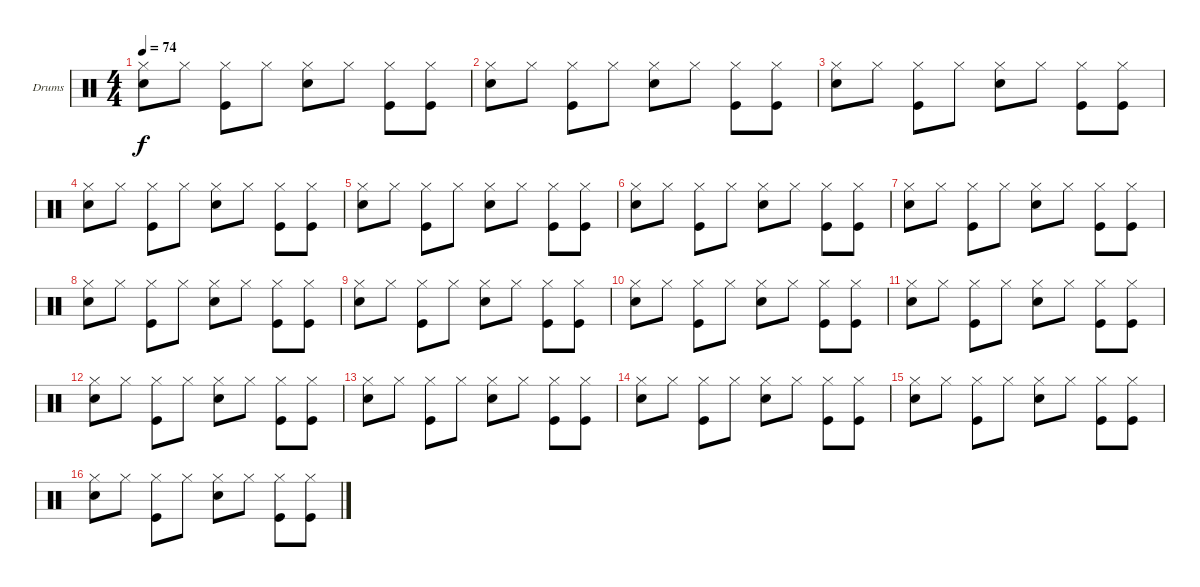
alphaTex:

\bracketExtendMode groupsimilarinstruments
\firstSystemTrackNameOrientation horizontal
\otherSystemsTrackNameOrientation horizontal
\track ("Drumkit" "Drums") {instrument percussion}
\staff {score}
\articulation defaults
\ts (4 4)
\tempo 74
\clef neutral
\ks c
("Hi-Hat (closed)" "Snare (hit) 2").8{dy f} "Hi-Hat (closed)".8 ("Hi-Hat (closed)" "Kick (hit)").8 "Hi-Hat (closed)".8 ("Hi-Hat (closed)" "Snare (hit) 2").8 "Hi-Hat (closed)".8 ("Hi-Hat (closed)" "Kick (hit)").8 ("Hi-Hat (closed)" "Kick (hit)").8 |
("Hi-Hat (closed)" "Snare (hit) 2").8 "Hi-Hat (closed)".8 ("Hi-Hat (closed)" "Kick (hit)").8 "Hi-Hat (closed)".8 ("Hi-Hat (closed)" "Snare (hit) 2").8 "Hi-Hat (closed)".8 ("Hi-Hat (closed)" "Kick (hit)").8 ("Hi-Hat (closed)" "Kick (hit)").8 |
("Hi-Hat (closed)" "Snare (hit) 2").8 "Hi-Hat (closed)".8 ("Hi-Hat (closed)" "Kick (hit)").8 "Hi-Hat (closed)".8 ("Hi-Hat (closed)" "Snare (hit) 2").8 "Hi-Hat (closed)".8 ("Hi-Hat (closed)" "Kick (hit)").8 ("Hi-Hat (closed)" "Kick (hit)").8 |
("Hi-Hat (closed)" "Snare (hit) 2").8 "Hi-Hat (closed)".8 ("Hi-Hat (closed)" "Kick (hit)").8 "Hi-Hat (closed)".8 ("Hi-Hat (closed)" "Snare (hit) 2").8 "Hi-Hat (closed)".8 ("Hi-Hat (closed)" "Kick (hit)").8 ("Hi-Hat (closed)" "Kick (hit)").8 |
("Hi-Hat (closed)" "Snare (hit) 2").8 "Hi-Hat (closed)".8 ("Hi-Hat (closed)" "Kick (hit)").8 "Hi-Hat (closed)".8 ("Hi-Hat (closed)" "Snare (hit) 2").8 "Hi-Hat (closed)".8 ("Hi-Hat (closed)" "Kick (hit)").8 ("Hi-Hat (closed)" "Kick (hit)").8 |
("Hi-Hat (closed)" "Snare (hit) 2").8 "Hi-Hat (closed)".8 ("Hi-Hat (closed)" "Kick (hit)").8 "Hi-Hat (closed)".8 ("Hi-Hat (closed)" "Snare (hit) 2").8 "Hi-Hat (closed)".8 ("Hi-Hat (closed)" "Kick (hit)").8 ("Hi-Hat (closed)" "Kick (hit)").8 |
("Hi-Hat (closed)" "Snare (hit) 2").8 "Hi-Hat (closed)".8 ("Hi-Hat (closed)" "Kick (hit)").8 "Hi-Hat (closed)".8 ("Hi-Hat (closed)" "Snare (hit) 2").8 "Hi-Hat (closed)".8 ("Hi-Hat (closed)" "Kick (hit)").8 ("Hi-Hat (closed)" "Kick (hit)").8 |
("Hi-Hat (closed)" "Snare (hit) 2").8 "Hi-Hat (closed)".8 ("Hi-Hat (closed)" "Kick (hit)").8 "Hi-Hat (closed)".8 ("Hi-Hat (closed)" "Snare (hit) 2").8 "Hi-Hat (closed)".8 ("Hi-Hat (closed)" "Kick (hit)").8 ("Hi-Hat (closed)" "Kick (hit)").8 |
("Hi-Hat (closed)" "Snare (hit) 2").8 "Hi-Hat (closed)".8 ("Hi-Hat (closed)" "Kick (hit)").8 "Hi-Hat (closed)".8 ("Hi-Hat (closed)" "Snare (hit) 2").8 "Hi-Hat (closed)".8 ("Hi-Hat (closed)" "Kick (hit)").8 ("Hi-Hat (closed)" "Kick (hit)").8 |
("Hi-Hat (closed)" "Snare (hit) 2").8 "Hi-Hat (closed)".8 ("Hi-Hat (closed)" "Kick (hit)").8 "Hi-Hat (closed)".8 ("Hi-Hat (closed)" "Snare (hit) 2").8 "Hi-Hat (closed)".8 ("Hi-Hat (closed)" "Kick (hit)").8 ("Hi-Hat (closed)" "Kick (hit)").8 |
("Hi-Hat (closed)" "Snare (hit) 2").8 "Hi-Hat (closed)".8 ("Hi-Hat (closed)" "Kick (hit)").8 "Hi-Hat (closed)".8 ("Hi-Hat (closed)" "Snare (hit) 2").8 "Hi-Hat (closed)".8 ("Hi-Hat (closed)" "Kick (hit)").8 ("Hi-Hat (closed)" "Kick (hit)").8 |
("Hi-Hat (closed)" "Snare (hit) 2").8 "Hi-Hat (closed)".8 ("Hi-Hat (closed)" "Kick (hit)").8 "Hi-Hat (closed)".8 ("Hi-Hat (closed)" "Snare (hit) 2").8 "Hi-Hat (closed)".8 ("Hi-Hat (closed)" "Kick (hit)").8 ("Hi-Hat (closed)" "Kick (hit)").8 |
("Hi-Hat (closed)" "Snare (hit) 2").8 "Hi-Hat (closed)".8 ("Hi-Hat (closed)" "Kick (hit)").8 "Hi-Hat (closed)".8 ("Hi-Hat (closed)" "Snare (hit) 2").8 "Hi-Hat (closed)".8 ("Hi-Hat (closed)" "Kick (hit)").8 ("Hi-Hat (closed)" "Kick (hit)").8 |
("Hi-Hat (closed)" "Snare (hit) 2").8 "Hi-Hat (closed)".8 ("Hi-Hat (closed)" "Kick (hit)").8 "Hi-Hat (closed)".8 ("Hi-Hat (closed)" "Snare (hit) 2").8 "Hi-Hat (closed)".8 ("Hi-Hat (closed)" "Kick (hit)").8 ("Hi-Hat (closed)" "Kick (hit)").8 |
("Hi-Hat (closed)" "Snare (hit) 2").8 "Hi-Hat (closed)".8 ("Hi-Hat (closed)" "Kick (hit)").8 "Hi-Hat (closed)".8 ("Hi-Hat (closed)" "Snare (hit) 2").8 "Hi-Hat (closed)".8 ("Hi-Hat (closed)" "Kick (hit)").8 ("Hi-Hat (closed)" "Kick (hit)").8 |
("Hi-Hat (closed)" "Snare (hit) 2").8 "Hi-Hat (closed)".8 ("Hi-Hat (closed)" "Kick (hit)").8 "Hi-Hat (closed)".8 ("Hi-Hat (closed)" "Snare (hit) 2").8 "Hi-Hat (closed)".8 ("Hi-Hat (closed)" "Kick (hit)").8 ("Hi-Hat (closed)" "Kick (hit)").8
